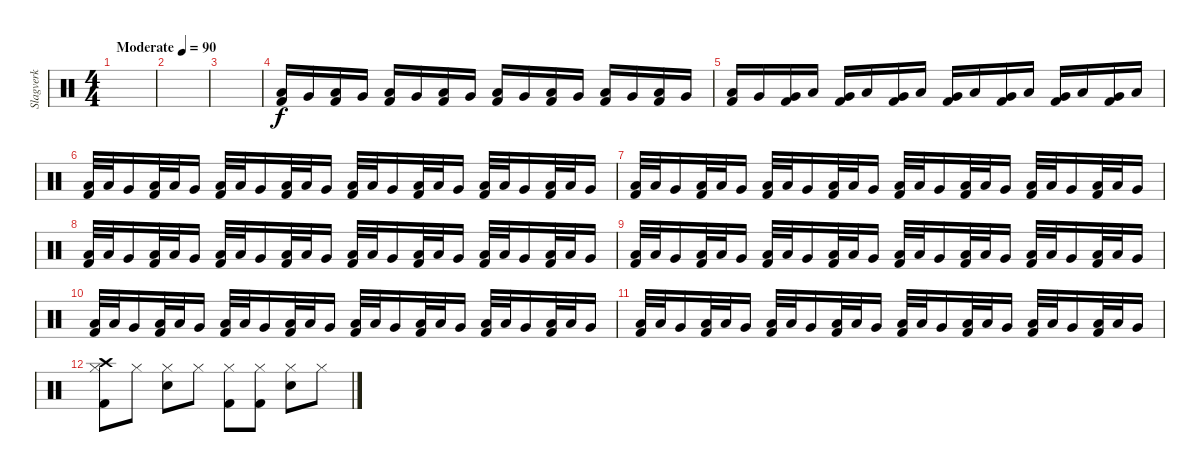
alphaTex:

\track ("Slagverk" "Slagverk") {instrument percussion}
\staff {score}
\articulation defaults
\ts (4 4)
\tempo (90 "Moderate")
\clef neutral
\ks c
|
|
|
("Low Floor Tom (hit)" "Kick (hit) 2").16 "Very Low Tom (hit)".16 ("Low Floor Tom (hit)" "Kick (hit) 2").16 "Very Low Tom (hit)".16 ("Low Floor Tom (hit)" "Kick (hit) 2").16 "Very Low Tom (hit)".16 ("Low Floor Tom (hit)" "Kick (hit) 2").16 "Very Low Tom (hit)".16 ("Low Floor Tom (hit)" "Kick (hit) 2").16 "Very Low Tom (hit)".16 ("Low Floor Tom (hit)" "Kick (hit) 2").16 "Very Low Tom (hit)".16 ("Low Floor Tom (hit)" "Kick (hit) 2").16 "Very Low Tom (hit)".16 ("Low Floor Tom (hit)" "Kick (hit) 2").16 "Very Low Tom (hit)".16 |
("Low Floor Tom (hit)" "Kick (hit) 2").16 "Very Low Tom (hit)".16 ("Very Low Tom (hit)" "Kick (hit) 2").16 "Low Floor Tom (hit)".16 ("Very Low Tom (hit)" "Kick (hit) 2").16 "Low Floor Tom (hit)".16 ("Very Low Tom (hit)" "Kick (hit) 2").16 "Low Floor Tom (hit)".16 ("Very Low Tom (hit)" "Kick (hit) 2").16 "Low Floor Tom (hit)".16 ("Very Low Tom (hit)" "Kick (hit) 2").16 "Low Floor Tom (hit)".16 ("Very Low Tom (hit)" "Kick (hit) 2").16 "Low Floor Tom (hit)".16 ("Very Low Tom (hit)" "Kick (hit) 2").16 "Low Floor Tom (hit)".16 |
("Low Floor Tom (hit)" "Kick (hit) 2").32 "Low Floor Tom (hit)".32 "Very Low Tom (hit)".16 ("Low Floor Tom (hit)" "Kick (hit) 2").32 "Low Floor Tom (hit)".32 "Very Low Tom (hit)".16 ("Low Floor Tom (hit)" "Kick (hit) 2").32 "Low Floor Tom (hit)".32 "Very Low Tom (hit)".16 ("Low Floor Tom (hit)" "Kick (hit) 2").32 "Low Floor Tom (hit)".32 "Very Low Tom (hit)".16 ("Low Floor Tom (hit)" "Kick (hit) 2").32 "Low Floor Tom (hit)".32 "Very Low Tom (hit)".16 ("Low Floor Tom (hit)" "Kick (hit) 2").32 "Low Floor Tom (hit)".32 "Very Low Tom (hit)".16 ("Low Floor Tom (hit)" "Kick (hit) 2").32 "Low Floor Tom (hit)".32 "Very Low Tom (hit)".16 ("Low Floor Tom (hit)" "Kick (hit) 2").32 "Low Floor Tom (hit)".32 "Very Low Tom (hit)".16 |
("Low Floor Tom (hit)" "Kick (hit) 2").32 "Low Floor Tom (hit)".32 "Very Low Tom (hit)".16 ("Low Floor Tom (hit)" "Kick (hit) 2").32 "Low Floor Tom (hit)".32 "Very Low Tom (hit)".16 ("Low Floor Tom (hit)" "Kick (hit) 2").32 "Low Floor Tom (hit)".32 "Very Low Tom (hit)".16 ("Low Floor Tom (hit)" "Kick (hit) 2").32 "Low Floor Tom (hit)".32 "Very Low Tom (hit)".16 ("Low Floor Tom (hit)" "Kick (hit) 2").32 "Low Floor Tom (hit)".32 "Very Low Tom (hit)".16 ("Low Floor Tom (hit)" "Kick (hit) 2").32 "Low Floor Tom (hit)".32 "Very Low Tom (hit)".16 ("Low Floor Tom (hit)" "Kick (hit) 2").32 "Low Floor Tom (hit)".32 "Very Low Tom (hit)".16 ("Low Floor Tom (hit)" "Kick (hit) 2").32 "Low Floor Tom (hit)".32 "Very Low Tom (hit)".16 |
("Low Floor Tom (hit)" "Kick (hit) 2").32 "Low Floor Tom (hit)".32 "Very Low Tom (hit)".16 ("Low Floor Tom (hit)" "Kick (hit) 2").32 "Low Floor Tom (hit)".32 "Very Low Tom (hit)".16 ("Low Floor Tom (hit)" "Kick (hit) 2").32 "Low Floor Tom (hit)".32 "Very Low Tom (hit)".16 ("Low Floor Tom (hit)" "Kick (hit) 2").32 "Low Floor Tom (hit)".32 "Very Low Tom (hit)".16 ("Low Floor Tom (hit)" "Kick (hit) 2").32 "Low Floor Tom (hit)".32 "Very Low Tom (hit)".16 ("Low Floor Tom (hit)" "Kick (hit) 2").32 "Low Floor Tom (hit)".32 "Very Low Tom (hit)".16 ("Low Floor Tom (hit)" "Kick (hit) 2").32 "Low Floor Tom (hit)".32 "Very Low Tom (hit)".16 ("Low Floor Tom (hit)" "Kick (hit) 2").32 "Low Floor Tom (hit)".32 "Very Low Tom (hit)".16 |
("Low Floor Tom (hit)" "Kick (hit) 2").32 "Low Floor Tom (hit)".32 "Very Low Tom (hit)".16 ("Low Floor Tom (hit)" "Kick (hit) 2").32 "Low Floor Tom (hit)".32 "Very Low Tom (hit)".16 ("Low Floor Tom (hit)" "Kick (hit) 2").32 "Low Floor Tom (hit)".32 "Very Low Tom (hit)".16 ("Low Floor Tom (hit)" "Kick (hit) 2").32 "Low Floor Tom (hit)".32 "Very Low Tom (hit)".16 ("Low Floor Tom (hit)" "Kick (hit) 2").32 "Low Floor Tom (hit)".32 "Very Low Tom (hit)".16 ("Low Floor Tom (hit)" "Kick (hit) 2").32 "Low Floor Tom (hit)".32 "Very Low Tom (hit)".16 ("Low Floor Tom (hit)" "Kick (hit) 2").32 "Low Floor Tom (hit)".32 "Very Low Tom (hit)".16 ("Low Floor Tom (hit)" "Kick (hit) 2").32 "Low Floor Tom (hit)".32 "Very Low Tom (hit)".16 |
("Low Floor Tom (hit)" "Kick (hit) 2").32 "Low Floor Tom (hit)".32 "Very Low Tom (hit)".16 ("Low Floor Tom (hit)" "Kick (hit) 2").32 "Low Floor Tom (hit)".32 "Very Low Tom (hit)".16 ("Low Floor Tom (hit)" "Kick (hit) 2").32 "Low Floor Tom (hit)".32 "Very Low Tom (hit)".16 ("Low Floor Tom (hit)" "Kick (hit) 2").32 "Low Floor Tom (hit)".32 "Very Low Tom (hit)".16 ("Low Floor Tom (hit)" "Kick (hit) 2").32 "Low Floor Tom (hit)".32 "Very Low Tom (hit)".16 ("Low Floor Tom (hit)" "Kick (hit) 2").32 "Low Floor Tom (hit)".32 "Very Low Tom (hit)".16 ("Low Floor Tom (hit)" "Kick (hit) 2").32 "Low Floor Tom (hit)".32 "Very Low Tom (hit)".16 ("Low Floor Tom (hit)" "Kick (hit) 2").32 "Low Floor Tom (hit)".32 "Very Low Tom (hit)".16 |
("Low Floor Tom (hit)" "Kick (hit) 2").32 "Low Floor Tom (hit)".32 "Very Low Tom (hit)".16 ("Low Floor Tom (hit)" "Kick (hit) 2").32 "Low Floor Tom (hit)".32 "Very Low Tom (hit)".16 ("Low Floor Tom (hit)" "Kick (hit) 2").32 "Low Floor Tom (hit)".32 "Very Low Tom (hit)".16 ("Low Floor Tom (hit)" "Kick (hit) 2").32 "Low Floor Tom (hit)".32 "Very Low Tom (hit)".16 ("Low Floor Tom (hit)" "Kick (hit) 2").32 "Low Floor Tom (hit)".32 "Very Low Tom (hit)".16 ("Low Floor Tom (hit)" "Kick (hit) 2").32 "Low Floor Tom (hit)".32 "Very Low Tom (hit)".16 ("Low Floor Tom (hit)" "Kick (hit) 2").32 "Low Floor Tom (hit)".32 "Very Low Tom (hit)".16 ("Low Floor Tom (hit)" "Kick (hit) 2").32 "Low Floor Tom (hit)".32 "Very Low Tom (hit)".16 |
("Crash high (hit)" "Hi-Hat (closed)" "Kick (hit) 2").8 "Hi-Hat (closed)".8 ("Hi-Hat (closed)" "Snare (hit) 2").8 "Hi-Hat (closed)".8 ("Hi-Hat (closed)" "Kick (hit) 2").8 ("Hi-Hat (closed)" "Kick (hit) 2").8 ("Hi-Hat (closed)" "Snare (hit) 2").8 "Hi-Hat (closed)".8
